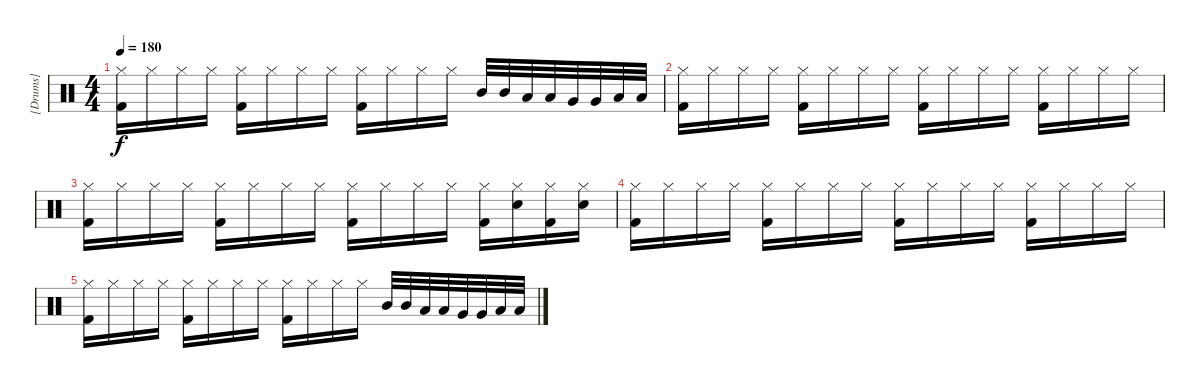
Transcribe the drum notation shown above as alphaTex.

\track ("[Drums]" "[Drums]") {instrument percussion}
\staff {score}
\articulation defaults
\ts (4 4)
\tempo 180
\clef neutral
\ks c
("Hi-Hat (closed)" "Kick (hit) 2").16{dy f} "Hi-Hat (closed)".16 "Hi-Hat (closed)".16 "Hi-Hat (closed)".16 ("Hi-Hat (closed)" "Kick (hit) 2").16 "Hi-Hat (closed)".16 "Hi-Hat (closed)".16 "Hi-Hat (closed)".16 ("Hi-Hat (closed)" "Kick (hit) 2").16 "Hi-Hat (closed)".16 "Hi-Hat (closed)".16 "Hi-Hat (closed)".16 "Mid Tom (hit)".32 "Mid Tom (hit)".32 "Low Tom (hit)".32 "Low Tom (hit)".32 "Very Low Tom (hit)".32 "Very Low Tom (hit)".32 "Low Floor Tom (hit)".32 "Low Floor Tom (hit)".32 |
("Hi-Hat (closed)" "Kick (hit) 2").16 "Hi-Hat (closed)".16 "Hi-Hat (closed)".16 "Hi-Hat (closed)".16 ("Hi-Hat (closed)" "Kick (hit) 2").16 "Hi-Hat (closed)".16 "Hi-Hat (closed)".16 "Hi-Hat (closed)".16 ("Hi-Hat (closed)" "Kick (hit) 2").16 "Hi-Hat (closed)".16 "Hi-Hat (closed)".16 "Hi-Hat (closed)".16 ("Hi-Hat (closed)" "Kick (hit) 2").16 "Hi-Hat (closed)".16 "Hi-Hat (closed)".16 "Hi-Hat (closed)".16 |
("Hi-Hat (closed)" "Kick (hit) 2").16 "Hi-Hat (closed)".16 "Hi-Hat (closed)".16 "Hi-Hat (closed)".16 ("Hi-Hat (closed)" "Kick (hit) 2").16 "Hi-Hat (closed)".16 "Hi-Hat (closed)".16 "Hi-Hat (closed)".16 ("Hi-Hat (closed)" "Kick (hit) 2").16 "Hi-Hat (closed)".16 "Hi-Hat (closed)".16 "Hi-Hat (closed)".16 ("Hi-Hat (closed)" "Kick (hit) 2").16 ("Hi-Hat (closed)" "Electric Snare (hit)").16 ("Hi-Hat (closed)" "Kick (hit) 2").16 ("Hi-Hat (closed)" "Electric Snare (hit)").16 |
("Hi-Hat (closed)" "Kick (hit) 2").16 "Hi-Hat (closed)".16 "Hi-Hat (closed)".16 "Hi-Hat (closed)".16 ("Hi-Hat (closed)" "Kick (hit) 2").16 "Hi-Hat (closed)".16 "Hi-Hat (closed)".16 "Hi-Hat (closed)".16 ("Hi-Hat (closed)" "Kick (hit) 2").16 "Hi-Hat (closed)".16 "Hi-Hat (closed)".16 "Hi-Hat (closed)".16 ("Hi-Hat (closed)" "Kick (hit) 2").16 "Hi-Hat (closed)".16 "Hi-Hat (closed)".16 "Hi-Hat (closed)".16 |
("Hi-Hat (closed)" "Kick (hit) 2").16 "Hi-Hat (closed)".16 "Hi-Hat (closed)".16 "Hi-Hat (closed)".16 ("Hi-Hat (closed)" "Kick (hit) 2").16 "Hi-Hat (closed)".16 "Hi-Hat (closed)".16 "Hi-Hat (closed)".16 ("Hi-Hat (closed)" "Kick (hit) 2").16 "Hi-Hat (closed)".16 "Hi-Hat (closed)".16 "Hi-Hat (closed)".16 "Mid Tom (hit)".32 "Mid Tom (hit)".32 "Low Tom (hit)".32 "Low Tom (hit)".32 "Very Low Tom (hit)".32 "Very Low Tom (hit)".32 "Low Floor Tom (hit)".32 "Low Floor Tom (hit)".32
